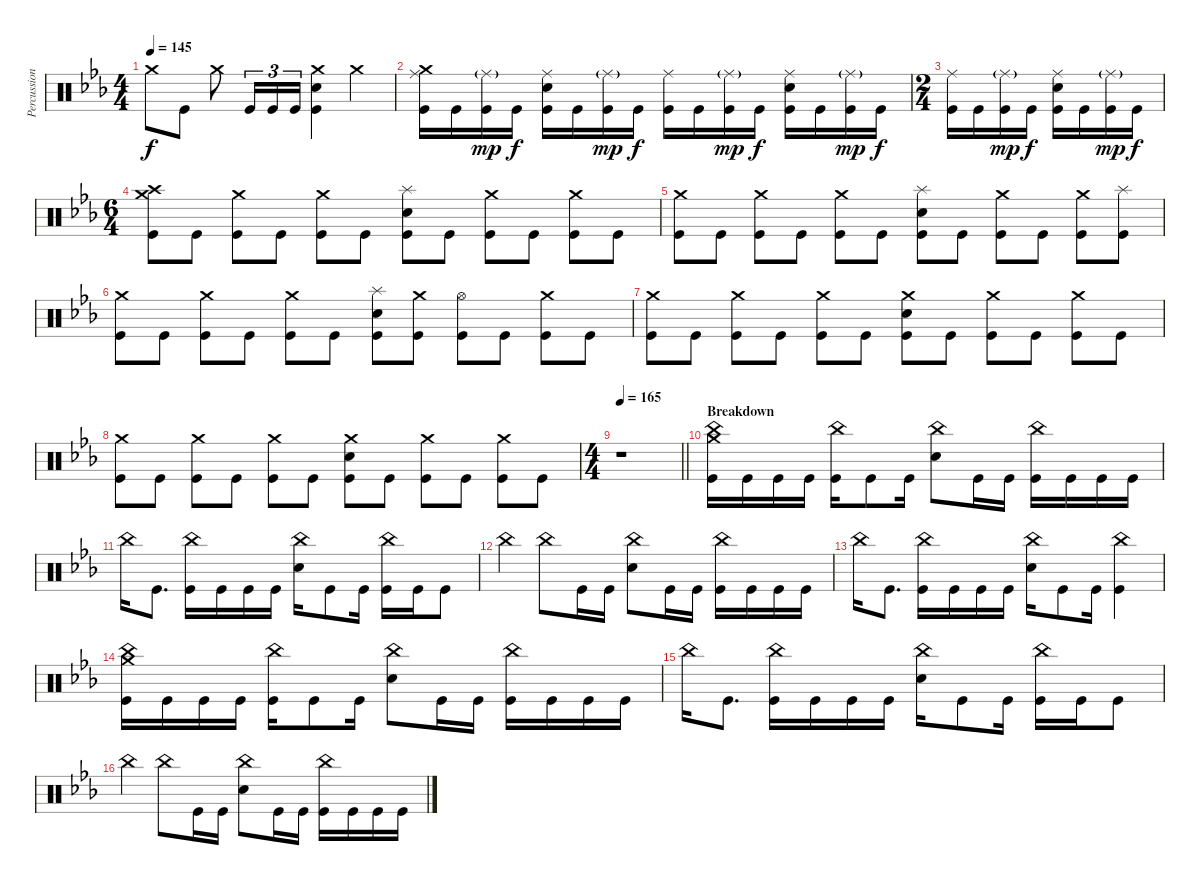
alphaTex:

\track ("Percussion" "Percussion") {instrument percussion}
\staff {score}
\articulation defaults
\ts (4 4)
\tempo 145
\clef neutral
\ks eb "Crash medium (hit)".8{dy f} "Kick (hit)".8 "Crash medium (hit)".8 "Kick (hit)".16{tu (3 2)} "Kick (hit)".16{tu (3 2)} "Kick (hit)".16{tu (3 2)}
("Crash medium (hit)" "Electric Snare (hit)" "Kick (hit)").4 "Crash medium (hit)".4 |
("Crash medium (hit)" "Ride (middle)" "Kick (hit)").16 "Kick (hit)".16 ("Ride (middle)"{g} "Kick (hit)").16{dy mp} "Kick (hit)".16{dy f} ("Ride (middle)" "Electric Snare (hit)" "Kick (hit)").16 "Kick (hit)".16 ("Ride (middle)"{g} "Kick (hit)").16{dy mp} "Kick (hit)".16{dy f} ("Ride (middle)" "Kick (hit)").16 "Kick (hit)".16 ("Ride (middle)"{g} "Kick (hit)").16{dy mp} "Kick (hit)".16{dy f} ("Ride (middle)" "Electric Snare (hit)" "Kick (hit)").16 "Kick (hit)".16 ("Ride (middle)"{g} "Kick (hit)").16{dy mp} "Kick (hit)".16{dy f} |
\ts (2 4)
("Ride (middle)" "Kick (hit)").16 "Kick (hit)".16 ("Ride (middle)"{g} "Kick (hit)").16{dy mp} "Kick (hit)".16{dy f} ("Ride (middle)" "Electric Snare (hit)" "Kick (hit)").16 "Kick (hit)".16 ("Ride (middle)"{g} "Kick (hit)").16{dy mp} "Kick (hit)".16{dy f} |
\ts (6 4)
("Crash high (hit)" "Crash medium (hit)" "Kick (hit)").8 "Kick (hit)".8 ("Crash medium (hit)" "Kick (hit)").8 "Kick (hit)".8 ("Crash medium (hit)" "Kick (hit)").8 "Kick (hit)".8 ("Splash (hit)" "Electric Snare (hit)" "Kick (hit)").8 "Kick (hit)".8 ("Crash medium (hit)" "Kick (hit)").8 "Kick (hit)".8 ("Crash medium (hit)" "Kick (hit)").8 "Kick (hit)".8 |
("Crash medium (hit)" "Kick (hit)").8 "Kick (hit)".8 ("Crash medium (hit)" "Kick (hit)").8 "Kick (hit)".8 ("Crash medium (hit)" "Kick (hit)").8 "Kick (hit)".8 ("Splash (hit)" "Electric Snare (hit)" "Kick (hit)").8 "Kick (hit)".8 ("Crash medium (hit)" "Kick (hit)").8 "Kick (hit)".8 ("Crash medium (hit)" "Kick (hit)").8 ("Splash (hit)" "Kick (hit)").8 |
("Crash medium (hit)" "Kick (hit)").8 "Kick (hit)".8 ("Crash medium (hit)" "Kick (hit)").8 "Kick (hit)".8 ("Crash medium (hit)" "Kick (hit)").8 "Kick (hit)".8 ("Splash (hit)" "Electric Snare (hit)" "Kick (hit)").8 ("Crash medium (hit)" "Kick (hit)").8 ("Hi-Hat (open)" "Kick (hit)").8 "Kick (hit)".8 ("Crash medium (hit)" "Kick (hit)").8 "Kick (hit)".8 |
("Crash medium (hit)" "Kick (hit)").8 "Kick (hit)".8 ("Crash medium (hit)" "Kick (hit)").8 "Kick (hit)".8 ("Crash medium (hit)" "Kick (hit)").8 "Kick (hit)".8 ("Crash medium (hit)" "Electric Snare (hit)" "Kick (hit)").8 "Kick (hit)".8 ("Crash medium (hit)" "Kick (hit)").8 "Kick (hit)".8 ("Crash medium (hit)" "Kick (hit)").8 "Kick (hit)".8 |
("Crash medium (hit)" "Kick (hit)").8 "Kick (hit)".8 ("Crash medium (hit)" "Kick (hit)").8 "Kick (hit)".8 ("Crash medium (hit)" "Kick (hit)").8 "Kick (hit)".8 ("Crash medium (hit)" "Electric Snare (hit)" "Kick (hit)").8 "Kick (hit)".8 ("Crash medium (hit)" "Kick (hit)").8 "Kick (hit)".8 ("Crash medium (hit)" "Kick (hit)").8 "Kick (hit)".8 |
\ts (4 4)
\tempo 165
\barLineRight lightlight
r.1 |
\section ("" "Breakdown")
("Crash medium (hit)" "China (hit)" "Kick (hit)").16 "Kick (hit)".16 "Kick (hit)".16 "Kick (hit)".16 ("China (hit)" "Kick (hit)").16 "Kick (hit)".8 "Kick (hit)".16 ("China (hit)" "Electric Snare (hit)").8 "Kick (hit)".16 "Kick (hit)".16 ("China (hit)" "Kick (hit)").16 "Kick (hit)".16 "Kick (hit)".16 "Kick (hit)".16 |
"China (hit)".16 "Kick (hit)".8{d} ("China (hit)" "Kick (hit)").16 "Kick (hit)".16 "Kick (hit)".16 "Kick (hit)".16 ("China (hit)" "Electric Snare (hit)").16 "Kick (hit)".8 "Kick (hit)".16 ("China (hit)" "Kick (hit)").16 "Kick (hit)".16 "Kick (hit)".8 |
"China (hit)".4 "China (hit)".8 "Kick (hit)".16 "Kick (hit)".16 ("China (hit)" "Electric Snare (hit)").8 "Kick (hit)".16 "Kick (hit)".16 ("China (hit)" "Kick (hit)").16 "Kick (hit)".16 "Kick (hit)".16 "Kick (hit)".16 |
"China (hit)".16 "Kick (hit)".8{d} ("China (hit)" "Kick (hit)").16 "Kick (hit)".16 "Kick (hit)".16 "Kick (hit)".16 ("China (hit)" "Electric Snare (hit)").16 "Kick (hit)".8 "Kick (hit)".16 ("China (hit)" "Kick (hit)").4 |
("Crash medium (hit)" "China (hit)" "Kick (hit)").16 "Kick (hit)".16 "Kick (hit)".16 "Kick (hit)".16 ("China (hit)" "Kick (hit)").16 "Kick (hit)".8 "Kick (hit)".16 ("China (hit)" "Electric Snare (hit)").8 "Kick (hit)".16 "Kick (hit)".16 ("China (hit)" "Kick (hit)").16 "Kick (hit)".16 "Kick (hit)".16 "Kick (hit)".16 |
"China (hit)".16 "Kick (hit)".8{d} ("China (hit)" "Kick (hit)").16 "Kick (hit)".16 "Kick (hit)".16 "Kick (hit)".16 ("China (hit)" "Electric Snare (hit)").16 "Kick (hit)".8 "Kick (hit)".16 ("China (hit)" "Kick (hit)").16 "Kick (hit)".16 "Kick (hit)".8 |
"China (hit)".4 "China (hit)".8 "Kick (hit)".16 "Kick (hit)".16 ("China (hit)" "Electric Snare (hit)").8 "Kick (hit)".16 "Kick (hit)".16 ("China (hit)" "Kick (hit)").16 "Kick (hit)".16 "Kick (hit)".16 "Kick (hit)".16
